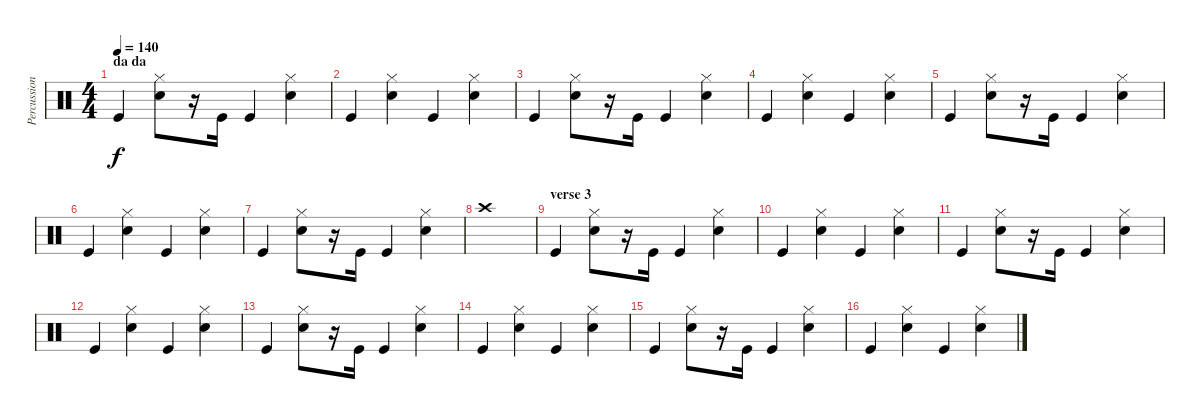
\track ("Percussions" "Percussion") {instrument percussion}
\staff {score}
\articulation defaults
\ts (4 4)
\section ("" "da da")
\tempo 140
\clef neutral
\ks c "Kick (hit)".4{dy f}
("Hi-Hat (closed)" "Electric Snare (hit)").8 r.16 "Kick (hit)".16 "Kick (hit)".4 ("Hi-Hat (closed)" "Electric Snare (hit)").4 |
"Kick (hit)".4 ("Hi-Hat (closed)" "Electric Snare (hit)").4 "Kick (hit)".4 ("Hi-Hat (closed)" "Electric Snare (hit)").4 |
"Kick (hit)".4 ("Hi-Hat (closed)" "Electric Snare (hit)").8 r.16 "Kick (hit)".16 "Kick (hit)".4 ("Hi-Hat (closed)" "Electric Snare (hit)").4 |
"Kick (hit)".4 ("Hi-Hat (closed)" "Electric Snare (hit)").4 "Kick (hit)".4 ("Hi-Hat (closed)" "Electric Snare (hit)").4 |
"Kick (hit)".4 ("Hi-Hat (closed)" "Electric Snare (hit)").8 r.16 "Kick (hit)".16 "Kick (hit)".4 ("Hi-Hat (closed)" "Electric Snare (hit)").4 |
"Kick (hit)".4 ("Hi-Hat (closed)" "Electric Snare (hit)").4 "Kick (hit)".4 ("Hi-Hat (closed)" "Electric Snare (hit)").4 |
"Kick (hit)".4 ("Hi-Hat (closed)" "Electric Snare (hit)").8 r.16 "Kick (hit)".16 "Kick (hit)".4 ("Hi-Hat (closed)" "Electric Snare (hit)").4 |
"Crash high (hit)".1 |
\section ("" "verse 3")
"Kick (hit)".4 ("Hi-Hat (closed)" "Electric Snare (hit)").8 r.16 "Kick (hit)".16 "Kick (hit)".4 ("Hi-Hat (closed)" "Electric Snare (hit)").4 |
"Kick (hit)".4 ("Hi-Hat (closed)" "Electric Snare (hit)").4 "Kick (hit)".4 ("Hi-Hat (closed)" "Electric Snare (hit)").4 |
"Kick (hit)".4 ("Hi-Hat (closed)" "Electric Snare (hit)").8 r.16 "Kick (hit)".16 "Kick (hit)".4 ("Hi-Hat (closed)" "Electric Snare (hit)").4 |
"Kick (hit)".4 ("Hi-Hat (closed)" "Electric Snare (hit)").4 "Kick (hit)".4 ("Hi-Hat (closed)" "Electric Snare (hit)").4 |
"Kick (hit)".4 ("Hi-Hat (closed)" "Electric Snare (hit)").8 r.16 "Kick (hit)".16 "Kick (hit)".4 ("Hi-Hat (closed)" "Electric Snare (hit)").4 |
"Kick (hit)".4 ("Hi-Hat (closed)" "Electric Snare (hit)").4 "Kick (hit)".4 ("Hi-Hat (closed)" "Electric Snare (hit)").4 |
"Kick (hit)".4 ("Hi-Hat (closed)" "Electric Snare (hit)").8 r.16 "Kick (hit)".16 "Kick (hit)".4 ("Hi-Hat (closed)" "Electric Snare (hit)").4 |
"Kick (hit)".4 ("Hi-Hat (closed)" "Electric Snare (hit)").4 "Kick (hit)".4 ("Hi-Hat (closed)" "Electric Snare (hit)").4
